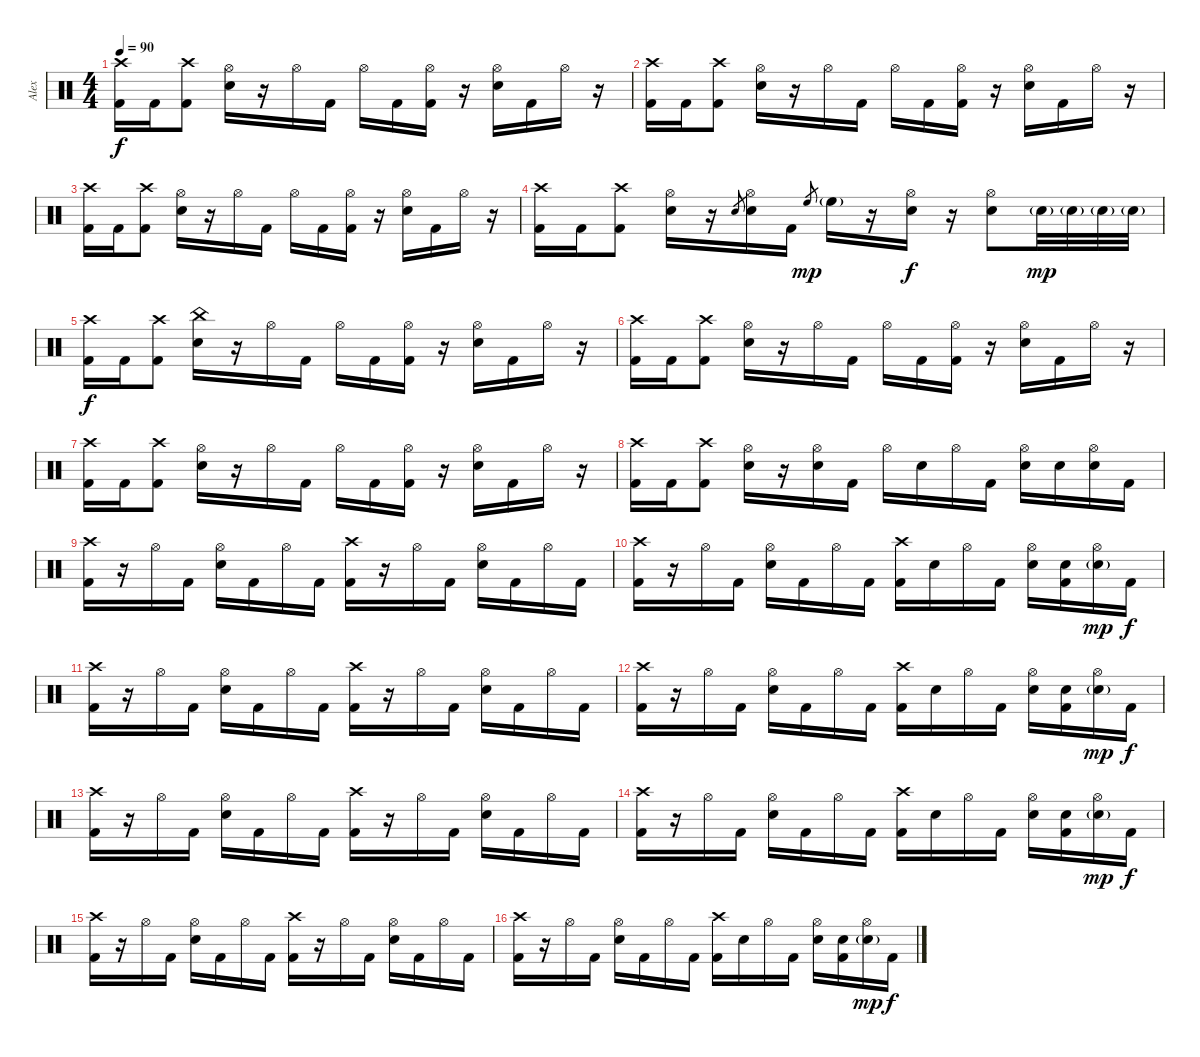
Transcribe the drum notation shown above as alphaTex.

\track ("Alex" "Alex") {instrument percussion}
\staff {score}
\articulation defaults
\ts (4 4)
\tempo 90
\clef neutral
\ks c
("Crash high (hit)" "Kick (hit) 2").16{dy f} "Kick (hit) 2".16 ("Crash high (hit)" "Kick (hit) 2").8 ("Hi-Hat (open)" "Electric Snare (hit)").16 r.16 "Hi-Hat (open)".16 "Kick (hit) 2".16 "Hi-Hat (open)".16 "Kick (hit) 2".16 ("Hi-Hat (open)" "Kick (hit) 2").16 r.16 ("Hi-Hat (open)" "Electric Snare (hit)").16 "Kick (hit) 2".16 "Hi-Hat (open)".16 r.16 |
("Crash high (hit)" "Kick (hit) 2").16 "Kick (hit) 2".16 ("Crash high (hit)" "Kick (hit) 2").8 ("Hi-Hat (open)" "Electric Snare (hit)").16 r.16 "Hi-Hat (open)".16 "Kick (hit) 2".16 "Hi-Hat (open)".16 "Kick (hit) 2".16 ("Hi-Hat (open)" "Kick (hit) 2").16 r.16 ("Hi-Hat (open)" "Electric Snare (hit)").16 "Kick (hit) 2".16 "Hi-Hat (open)".16 r.16 |
("Crash high (hit)" "Kick (hit) 2").16 "Kick (hit) 2".16 ("Crash high (hit)" "Kick (hit) 2").8 ("Hi-Hat (open)" "Electric Snare (hit)").16 r.16 "Hi-Hat (open)".16 "Kick (hit) 2".16 "Hi-Hat (open)".16 "Kick (hit) 2".16 ("Hi-Hat (open)" "Kick (hit) 2").16 r.16 ("Hi-Hat (open)" "Electric Snare (hit)").16 "Kick (hit) 2".16 "Hi-Hat (open)".16 r.16 |
("Crash high (hit)" "Kick (hit) 2").16 "Kick (hit) 2".16 ("Crash high (hit)" "Kick (hit) 2").8 ("Hi-Hat (open)" "Electric Snare (hit)").16 r.16 "Electric Snare (hit)".8{gr} ("Hi-Hat (open)" "Electric Snare (hit)").16 "Kick (hit) 2".16 "High Floor Tom (hit)".8{gr dy mp} "High Floor Tom (hit)"{g}.16 r.16 ("Hi-Hat (open)" "Electric Snare (hit)").16{dy f} r.16 ("Hi-Hat (open)" "Electric Snare (hit)").8 "Electric Snare (hit)"{g}.32{dy mp} "Electric Snare (hit)"{g}.32 "Electric Snare (hit)"{g}.32 "Electric Snare (hit)"{g}.32 |
("Crash high (hit)" "Kick (hit) 2").16{dy f} "Kick (hit) 2".16 ("Crash high (hit)" "Kick (hit) 2").8 ("China (hit)" "Electric Snare (hit)").16 r.16 "Hi-Hat (open)".16 "Kick (hit) 2".16 "Hi-Hat (open)".16 "Kick (hit) 2".16 ("Hi-Hat (open)" "Kick (hit) 2").16 r.16 ("Hi-Hat (open)" "Electric Snare (hit)").16 "Kick (hit) 2".16 "Hi-Hat (open)".16 r.16 |
("Crash high (hit)" "Kick (hit) 2").16 "Kick (hit) 2".16 ("Crash high (hit)" "Kick (hit) 2").8 ("Hi-Hat (open)" "Electric Snare (hit)").16 r.16 "Hi-Hat (open)".16 "Kick (hit) 2".16 "Hi-Hat (open)".16 "Kick (hit) 2".16 ("Hi-Hat (open)" "Kick (hit) 2").16 r.16 ("Hi-Hat (open)" "Electric Snare (hit)").16 "Kick (hit) 2".16 "Hi-Hat (open)".16 r.16 |
("Crash high (hit)" "Kick (hit) 2").16 "Kick (hit) 2".16 ("Crash high (hit)" "Kick (hit) 2").8 ("Hi-Hat (open)" "Electric Snare (hit)").16 r.16 "Hi-Hat (open)".16 "Kick (hit) 2".16 "Hi-Hat (open)".16 "Kick (hit) 2".16 ("Hi-Hat (open)" "Kick (hit) 2").16 r.16 ("Hi-Hat (open)" "Electric Snare (hit)").16 "Kick (hit) 2".16 "Hi-Hat (open)".16 r.16 |
("Crash high (hit)" "Kick (hit) 2").16 "Kick (hit) 2".16 ("Crash high (hit)" "Kick (hit) 2").8 ("Hi-Hat (open)" "Electric Snare (hit)").16 r.16 ("Hi-Hat (open)" "Electric Snare (hit)").16 "Kick (hit) 2".16 "Hi-Hat (open)".16 "Electric Snare (hit)".16 "Hi-Hat (open)".16 "Kick (hit) 2".16 ("Hi-Hat (open)" "Electric Snare (hit)").16 "Electric Snare (hit)".16 ("Hi-Hat (open)" "Electric Snare (hit)").16 "Kick (hit) 2".16 |
("Crash high (hit)" "Kick (hit) 2").16 r.16 "Hi-Hat (open)".16 "Kick (hit) 2".16 ("Hi-Hat (open)" "Electric Snare (hit)").16 "Kick (hit) 2".16 "Hi-Hat (open)".16 "Kick (hit) 2".16 ("Crash high (hit)" "Kick (hit) 2").16 r.16 "Hi-Hat (open)".16 "Kick (hit) 2".16 ("Hi-Hat (open)" "Electric Snare (hit)").16 "Kick (hit) 2".16 "Hi-Hat (open)".16 "Kick (hit) 2".16 |
("Crash high (hit)" "Kick (hit) 2").16 r.16 "Hi-Hat (open)".16 "Kick (hit) 2".16 ("Hi-Hat (open)" "Electric Snare (hit)").16 "Kick (hit) 2".16 "Hi-Hat (open)".16 "Kick (hit) 2".16 ("Crash high (hit)" "Kick (hit) 2").16 "Electric Snare (hit)".16 "Hi-Hat (open)".16 "Kick (hit) 2".16 ("Hi-Hat (open)" "Electric Snare (hit)").16 ("Electric Snare (hit)" "Kick (hit) 2").16 ("Hi-Hat (open)" "Electric Snare (hit)"{g}).16{dy mp} "Kick (hit) 2".16{dy f} |
("Crash high (hit)" "Kick (hit) 2").16 r.16 "Hi-Hat (open)".16 "Kick (hit) 2".16 ("Hi-Hat (open)" "Electric Snare (hit)").16 "Kick (hit) 2".16 "Hi-Hat (open)".16 "Kick (hit) 2".16 ("Crash high (hit)" "Kick (hit) 2").16 r.16 "Hi-Hat (open)".16 "Kick (hit) 2".16 ("Hi-Hat (open)" "Electric Snare (hit)").16 "Kick (hit) 2".16 "Hi-Hat (open)".16 "Kick (hit) 2".16 |
("Crash high (hit)" "Kick (hit) 2").16 r.16 "Hi-Hat (open)".16 "Kick (hit) 2".16 ("Hi-Hat (open)" "Electric Snare (hit)").16 "Kick (hit) 2".16 "Hi-Hat (open)".16 "Kick (hit) 2".16 ("Crash high (hit)" "Kick (hit) 2").16 "Electric Snare (hit)".16 "Hi-Hat (open)".16 "Kick (hit) 2".16 ("Hi-Hat (open)" "Electric Snare (hit)").16 ("Electric Snare (hit)" "Kick (hit) 2").16 ("Hi-Hat (open)" "Electric Snare (hit)"{g}).16{dy mp} "Kick (hit) 2".16{dy f} |
("Crash high (hit)" "Kick (hit) 2").16 r.16 "Hi-Hat (open)".16 "Kick (hit) 2".16 ("Hi-Hat (open)" "Electric Snare (hit)").16 "Kick (hit) 2".16 "Hi-Hat (open)".16 "Kick (hit) 2".16 ("Crash high (hit)" "Kick (hit) 2").16 r.16 "Hi-Hat (open)".16 "Kick (hit) 2".16 ("Hi-Hat (open)" "Electric Snare (hit)").16 "Kick (hit) 2".16 "Hi-Hat (open)".16 "Kick (hit) 2".16 |
("Crash high (hit)" "Kick (hit) 2").16 r.16 "Hi-Hat (open)".16 "Kick (hit) 2".16 ("Hi-Hat (open)" "Electric Snare (hit)").16 "Kick (hit) 2".16 "Hi-Hat (open)".16 "Kick (hit) 2".16 ("Crash high (hit)" "Kick (hit) 2").16 "Electric Snare (hit)".16 "Hi-Hat (open)".16 "Kick (hit) 2".16 ("Hi-Hat (open)" "Electric Snare (hit)").16 ("Electric Snare (hit)" "Kick (hit) 2").16 ("Hi-Hat (open)" "Electric Snare (hit)"{g}).16{dy mp} "Kick (hit) 2".16{dy f} |
("Crash high (hit)" "Kick (hit) 2").16 r.16 "Hi-Hat (open)".16 "Kick (hit) 2".16 ("Hi-Hat (open)" "Electric Snare (hit)").16 "Kick (hit) 2".16 "Hi-Hat (open)".16 "Kick (hit) 2".16 ("Crash high (hit)" "Kick (hit) 2").16 r.16 "Hi-Hat (open)".16 "Kick (hit) 2".16 ("Hi-Hat (open)" "Electric Snare (hit)").16 "Kick (hit) 2".16 "Hi-Hat (open)".16 "Kick (hit) 2".16 |
("Crash high (hit)" "Kick (hit) 2").16 r.16 "Hi-Hat (open)".16 "Kick (hit) 2".16 ("Hi-Hat (open)" "Electric Snare (hit)").16 "Kick (hit) 2".16 "Hi-Hat (open)".16 "Kick (hit) 2".16 ("Crash high (hit)" "Kick (hit) 2").16 "Electric Snare (hit)".16 "Hi-Hat (open)".16 "Kick (hit) 2".16 ("Hi-Hat (open)" "Electric Snare (hit)").16 ("Electric Snare (hit)" "Kick (hit) 2").16 ("Hi-Hat (open)" "Electric Snare (hit)"{g}).16{dy mp} "Kick (hit) 2".16{dy f}
